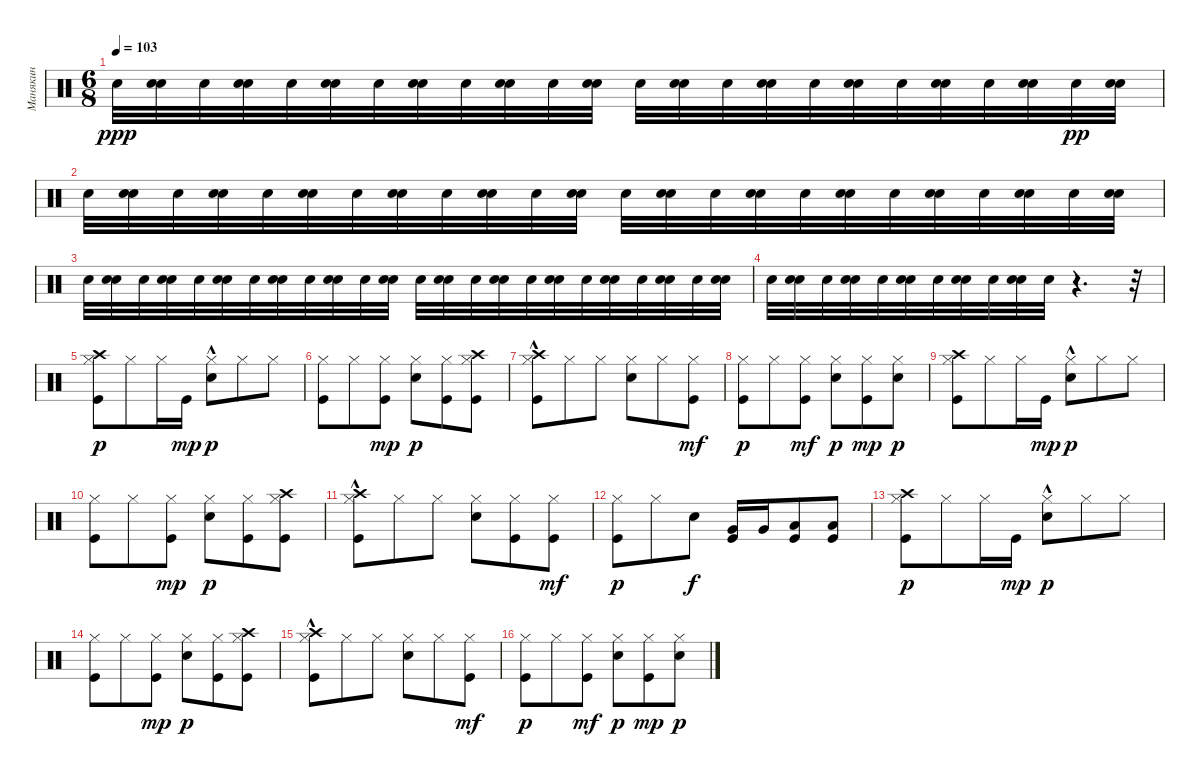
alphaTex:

\track ("Манякин" "Манякин") {instrument percussion}
\staff {score}
\articulation defaults
\ts (6 8)
\tempo 103
\clef neutral
\ks c "Snare (hit) 2".32{dy ppp}
("Snare (hit) 2" "Snare (hit) 2").32 "Snare (hit) 2".32 ("Snare (hit) 2" "Snare (hit) 2").32 "Snare (hit) 2".32 ("Snare (hit) 2" "Snare (hit) 2").32 "Snare (hit) 2".32 ("Snare (hit) 2" "Snare (hit) 2").32 "Snare (hit) 2".32 ("Snare (hit) 2" "Snare (hit) 2").32 "Snare (hit) 2".32 ("Snare (hit) 2" "Snare (hit) 2").32 "Snare (hit) 2".32 ("Snare (hit) 2" "Snare (hit) 2").32 "Snare (hit) 2".32 ("Snare (hit) 2" "Snare (hit) 2").32 "Snare (hit) 2".32 ("Snare (hit) 2" "Snare (hit) 2").32 "Snare (hit) 2".32 ("Snare (hit) 2" "Snare (hit) 2").32 "Snare (hit) 2".32 ("Snare (hit) 2" "Snare (hit) 2").32 "Snare (hit) 2".32{dy pp} ("Snare (hit) 2" "Snare (hit) 2").32 |
"Snare (hit) 2".32 ("Snare (hit) 2" "Snare (hit) 2").32 "Snare (hit) 2".32 ("Snare (hit) 2" "Snare (hit) 2").32 "Snare (hit) 2".32 ("Snare (hit) 2" "Snare (hit) 2").32 "Snare (hit) 2".32 ("Snare (hit) 2" "Snare (hit) 2").32 "Snare (hit) 2".32 ("Snare (hit) 2" "Snare (hit) 2").32 "Snare (hit) 2".32 ("Snare (hit) 2" "Snare (hit) 2").32 "Snare (hit) 2".32 ("Snare (hit) 2" "Snare (hit) 2").32 "Snare (hit) 2".32 ("Snare (hit) 2" "Snare (hit) 2").32 "Snare (hit) 2".32 ("Snare (hit) 2" "Snare (hit) 2").32 "Snare (hit) 2".32 ("Snare (hit) 2" "Snare (hit) 2").32 "Snare (hit) 2".32 ("Snare (hit) 2" "Snare (hit) 2").32 "Snare (hit) 2".32 ("Snare (hit) 2" "Snare (hit) 2").32 |
"Snare (hit) 2".32 ("Snare (hit) 2" "Snare (hit) 2").32 "Snare (hit) 2".32 ("Snare (hit) 2" "Snare (hit) 2").32 "Snare (hit) 2".32 ("Snare (hit) 2" "Snare (hit) 2").32 "Snare (hit) 2".32 ("Snare (hit) 2" "Snare (hit) 2").32 "Snare (hit) 2".32 ("Snare (hit) 2" "Snare (hit) 2").32 "Snare (hit) 2".32 ("Snare (hit) 2" "Snare (hit) 2").32 "Snare (hit) 2".32 ("Snare (hit) 2" "Snare (hit) 2").32 "Snare (hit) 2".32 ("Snare (hit) 2" "Snare (hit) 2").32 "Snare (hit) 2".32 ("Snare (hit) 2" "Snare (hit) 2").32 "Snare (hit) 2".32 ("Snare (hit) 2" "Snare (hit) 2").32 "Snare (hit) 2".32 ("Snare (hit) 2" "Snare (hit) 2").32 "Snare (hit) 2".32 ("Snare (hit) 2" "Snare (hit) 2").32 |
"Snare (hit) 2".32 ("Snare (hit) 2" "Snare (hit) 2").32 "Snare (hit) 2".32 ("Snare (hit) 2" "Snare (hit) 2").32 "Snare (hit) 2".32 ("Snare (hit) 2" "Snare (hit) 2").32 "Snare (hit) 2".32 ("Snare (hit) 2" "Snare (hit) 2").32 "Snare (hit) 2".32 ("Snare (hit) 2" "Snare (hit) 2").32 "Snare (hit) 2".32 r.4{d} r.32 |
("Crash high (hit)" "Hi-Hat (closed)" "Kick (hit)").8{dy p} "Hi-Hat (closed)".8 "Hi-Hat (closed)".16 "Kick (hit)".16{dy mp} ("Hi-Hat (closed)" "Electric Snare (hit)"{hac}).8{dy p} "Hi-Hat (closed)".8 "Hi-Hat (closed)".8 |
("Hi-Hat (closed)" "Kick (hit)").8 "Hi-Hat (closed)".8 ("Hi-Hat (closed)" "Kick (hit)").8{dy mp} ("Hi-Hat (closed)" "Electric Snare (hit)").8{dy p} ("Hi-Hat (closed)" "Kick (hit)").8 ("Crash high (hit)" "Hi-Hat (closed)" "Kick (hit)").8 |
("Crash high (hit)" "Hi-Hat (closed)" "Kick (hit)"{hac}).8 "Hi-Hat (closed)".8 "Hi-Hat (closed)".8 ("Hi-Hat (closed)" "Electric Snare (hit)").8 "Hi-Hat (closed)".8 ("Hi-Hat (closed)" "Kick (hit)").8{dy mf} |
("Hi-Hat (closed)" "Kick (hit)").8{dy p} "Hi-Hat (closed)".8 ("Hi-Hat (closed)" "Kick (hit)").8{dy mf} ("Hi-Hat (closed)" "Electric Snare (hit)").8{dy p} ("Hi-Hat (closed)" "Kick (hit)").8{dy mp} ("Hi-Hat (closed)" "Electric Snare (hit)").8{dy p} |
("Crash high (hit)" "Hi-Hat (closed)" "Kick (hit)").8 "Hi-Hat (closed)".8 "Hi-Hat (closed)".16 "Kick (hit)".16{dy mp} ("Hi-Hat (closed)" "Electric Snare (hit)"{hac}).8{dy p} "Hi-Hat (closed)".8 "Hi-Hat (closed)".8 |
("Hi-Hat (closed)" "Kick (hit)").8 "Hi-Hat (closed)".8 ("Hi-Hat (closed)" "Kick (hit)").8{dy mp} ("Hi-Hat (closed)" "Electric Snare (hit)").8{dy p} ("Hi-Hat (closed)" "Kick (hit)").8 ("Crash high (hit)" "Hi-Hat (closed)" "Kick (hit)").8 |
("Crash high (hit)" "Hi-Hat (closed)" "Kick (hit)"{hac}).8 "Hi-Hat (closed)".8 "Hi-Hat (closed)".8 ("Hi-Hat (closed)" "Electric Snare (hit)").8 ("Hi-Hat (closed)" "Kick (hit)").8 ("Hi-Hat (closed)" "Kick (hit)").8{dy mf} |
("Hi-Hat (closed)" "Kick (hit)").8{dy p} "Hi-Hat (closed)".8 "Electric Snare (hit)".8{dy f} ("Kick (hit)" "Very Low Tom (hit)").16 "Very Low Tom (hit)".16 ("Kick (hit)" "Low Floor Tom (hit)").8 ("Kick (hit)" "Low Floor Tom (hit)").8 |
("Crash high (hit)" "Hi-Hat (closed)" "Kick (hit)").8{dy p} "Hi-Hat (closed)".8 "Hi-Hat (closed)".16 "Kick (hit)".16{dy mp} ("Hi-Hat (closed)" "Electric Snare (hit)"{hac}).8{dy p} "Hi-Hat (closed)".8 "Hi-Hat (closed)".8 |
("Hi-Hat (closed)" "Kick (hit)").8 "Hi-Hat (closed)".8 ("Hi-Hat (closed)" "Kick (hit)").8{dy mp} ("Hi-Hat (closed)" "Electric Snare (hit)").8{dy p} ("Hi-Hat (closed)" "Kick (hit)").8 ("Crash high (hit)" "Hi-Hat (closed)" "Kick (hit)").8 |
("Crash high (hit)" "Hi-Hat (closed)" "Kick (hit)"{hac}).8 "Hi-Hat (closed)".8 "Hi-Hat (closed)".8 ("Hi-Hat (closed)" "Electric Snare (hit)").8 "Hi-Hat (closed)".8 ("Hi-Hat (closed)" "Kick (hit)").8{dy mf} |
("Hi-Hat (closed)" "Kick (hit)").8{dy p} "Hi-Hat (closed)".8 ("Hi-Hat (closed)" "Kick (hit)").8{dy mf} ("Hi-Hat (closed)" "Electric Snare (hit)").8{dy p} ("Hi-Hat (closed)" "Kick (hit)").8{dy mp} ("Hi-Hat (closed)" "Electric Snare (hit)").8{dy p}
